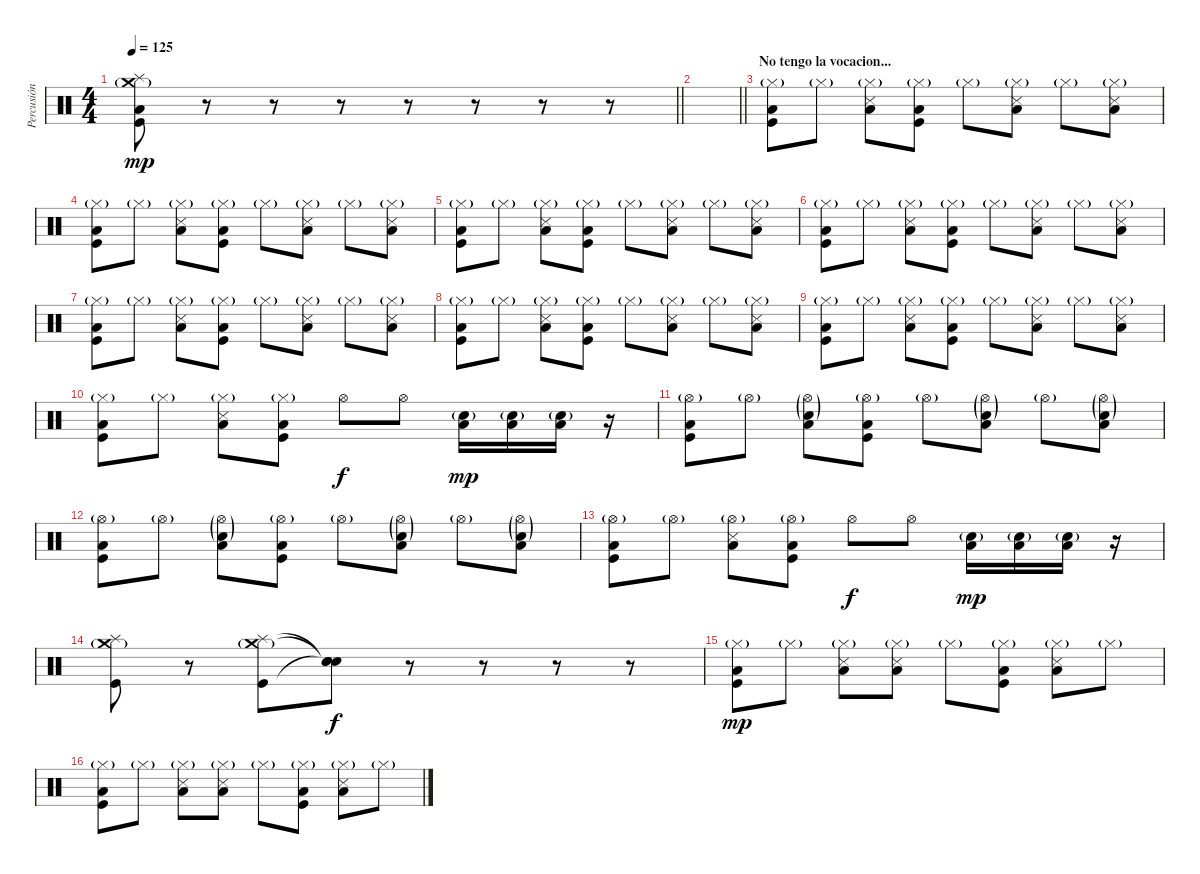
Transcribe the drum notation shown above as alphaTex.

\track ("Percusión" "Percusión") {instrument percussion}
\staff {score}
\articulation defaults
\ts (4 4)
\tempo 125
\clef neutral
\barLineRight lightlight
\ks c
("Splash (hit)" "Crash medium (hit)"{g} "Low Floor Tom (hit)" "Kick (hit)").8{dy mp} r.8 r.8 r.8 r.8 r.8 r.8 r.8 |
\barLineRight lightlight
|
\section ("" "No tengo la vocacion...")
("Hi-Hat (closed)"{g} "Low Floor Tom (hit)" "Kick (hit)").8 "Hi-Hat (closed)"{g}.8 ("Hi-Hat (closed)"{g} "Low Floor Tom (hit)" "Snare (side stick) 3").8 ("Hi-Hat (closed)"{g} "Low Floor Tom (hit)" "Kick (hit)").8 "Hi-Hat (closed)"{g}.8 ("Hi-Hat (closed)"{g} "Low Floor Tom (hit)" "Snare (side stick) 3").8 "Hi-Hat (closed)"{g}.8 ("Hi-Hat (closed)"{g} "Low Floor Tom (hit)" "Snare (side stick) 3").8 |
("Hi-Hat (closed)"{g} "Low Floor Tom (hit)" "Kick (hit)").8 "Hi-Hat (closed)"{g}.8 ("Hi-Hat (closed)"{g} "Low Floor Tom (hit)" "Snare (side stick) 3").8 ("Hi-Hat (closed)"{g} "Low Floor Tom (hit)" "Kick (hit)").8 "Hi-Hat (closed)"{g}.8 ("Hi-Hat (closed)"{g} "Low Floor Tom (hit)" "Snare (side stick) 3").8 "Hi-Hat (closed)"{g}.8 ("Hi-Hat (closed)"{g} "Low Floor Tom (hit)" "Snare (side stick) 3").8 |
("Hi-Hat (closed)"{g} "Low Floor Tom (hit)" "Kick (hit)").8 "Hi-Hat (closed)"{g}.8 ("Hi-Hat (closed)"{g} "Low Floor Tom (hit)" "Snare (side stick) 3").8 ("Hi-Hat (closed)"{g} "Low Floor Tom (hit)" "Kick (hit)").8 "Hi-Hat (closed)"{g}.8 ("Hi-Hat (closed)"{g} "Low Floor Tom (hit)" "Snare (side stick) 3").8 "Hi-Hat (closed)"{g}.8 ("Hi-Hat (closed)"{g} "Low Floor Tom (hit)" "Snare (side stick) 3").8 |
("Hi-Hat (closed)"{g} "Low Floor Tom (hit)" "Kick (hit)").8 "Hi-Hat (closed)"{g}.8 ("Hi-Hat (closed)"{g} "Low Floor Tom (hit)" "Snare (side stick) 3").8 ("Hi-Hat (closed)"{g} "Low Floor Tom (hit)" "Kick (hit)").8 "Hi-Hat (closed)"{g}.8 ("Hi-Hat (closed)"{g} "Low Floor Tom (hit)" "Snare (side stick) 3").8 "Hi-Hat (closed)"{g}.8 ("Hi-Hat (closed)"{g} "Low Floor Tom (hit)" "Snare (side stick) 3").8 |
("Hi-Hat (closed)"{g} "Low Floor Tom (hit)" "Kick (hit)").8 "Hi-Hat (closed)"{g}.8 ("Hi-Hat (closed)"{g} "Low Floor Tom (hit)" "Snare (side stick) 3").8 ("Hi-Hat (closed)"{g} "Low Floor Tom (hit)" "Kick (hit)").8 "Hi-Hat (closed)"{g}.8 ("Hi-Hat (closed)"{g} "Low Floor Tom (hit)" "Snare (side stick) 3").8 "Hi-Hat (closed)"{g}.8 ("Hi-Hat (closed)"{g} "Low Floor Tom (hit)" "Snare (side stick) 3").8 |
("Hi-Hat (closed)"{g} "Low Floor Tom (hit)" "Kick (hit)").8 "Hi-Hat (closed)"{g}.8 ("Hi-Hat (closed)"{g} "Low Floor Tom (hit)" "Snare (side stick) 3").8 ("Hi-Hat (closed)"{g} "Low Floor Tom (hit)" "Kick (hit)").8 "Hi-Hat (closed)"{g}.8 ("Hi-Hat (closed)"{g} "Low Floor Tom (hit)" "Snare (side stick) 3").8 "Hi-Hat (closed)"{g}.8 ("Hi-Hat (closed)"{g} "Low Floor Tom (hit)" "Snare (side stick) 3").8 |
("Hi-Hat (closed)"{g} "Low Floor Tom (hit)" "Kick (hit)").8 "Hi-Hat (closed)"{g}.8 ("Hi-Hat (closed)"{g} "Low Floor Tom (hit)" "Snare (side stick) 3").8 ("Hi-Hat (closed)"{g} "Low Floor Tom (hit)" "Kick (hit)").8 "Hi-Hat (closed)"{g}.8 ("Hi-Hat (closed)"{g} "Low Floor Tom (hit)" "Snare (side stick) 3").8 "Hi-Hat (closed)"{g}.8 ("Hi-Hat (closed)"{g} "Low Floor Tom (hit)" "Snare (side stick) 3").8 |
("Hi-Hat (closed)"{g} "Low Floor Tom (hit)" "Kick (hit)").8 "Hi-Hat (closed)"{g}.8 ("Hi-Hat (closed)"{g} "Low Floor Tom (hit)" "Snare (side stick) 3").8 ("Hi-Hat (closed)"{g} "Low Floor Tom (hit)" "Kick (hit)").8 "Hi-Hat (open)".8{dy f} "Hi-Hat (open)".8 ("Low Floor Tom (hit)" "Electric Snare (hit)"{g}).16{dy mp} ("Low Floor Tom (hit)" "Electric Snare (hit)"{g}).16 ("Low Floor Tom (hit)" "Electric Snare (hit)"{g}).16 r.16 |
("Hi-Hat (open)"{g} "Low Floor Tom (hit)" "Kick (hit)").8 "Hi-Hat (open)"{g}.8 ("Hi-Hat (open)"{g} "Low Floor Tom (hit)" "Electric Snare (hit)"{g}).8 ("Hi-Hat (open)"{g} "Low Floor Tom (hit)" "Kick (hit)").8 "Hi-Hat (open)"{g}.8 ("Hi-Hat (open)"{g} "Low Floor Tom (hit)" "Electric Snare (hit)"{g}).8 "Hi-Hat (open)"{g}.8 ("Hi-Hat (open)"{g} "Low Floor Tom (hit)" "Electric Snare (hit)"{g}).8 |
("Hi-Hat (open)"{g} "Low Floor Tom (hit)" "Kick (hit)").8 "Hi-Hat (open)"{g}.8 ("Hi-Hat (open)"{g} "Low Floor Tom (hit)" "Electric Snare (hit)"{g}).8 ("Hi-Hat (open)"{g} "Low Floor Tom (hit)" "Kick (hit)").8 "Hi-Hat (open)"{g}.8 ("Hi-Hat (open)"{g} "Low Floor Tom (hit)" "Electric Snare (hit)"{g}).8 "Hi-Hat (open)"{g}.8 ("Hi-Hat (open)"{g} "Low Floor Tom (hit)" "Electric Snare (hit)"{g}).8 |
("Hi-Hat (open)"{g} "Low Floor Tom (hit)" "Kick (hit)").8 "Hi-Hat (open)"{g}.8 ("Hi-Hat (open)"{g} "Low Floor Tom (hit)" "Snare (side stick) 3").8 ("Hi-Hat (open)"{g} "Low Floor Tom (hit)" "Kick (hit)").8 "Hi-Hat (open)".8{dy f} "Hi-Hat (open)".8 ("Low Floor Tom (hit)" "Electric Snare (hit)"{g}).16{dy mp} ("Low Floor Tom (hit)" "Electric Snare (hit)"{g}).16 ("Low Floor Tom (hit)" "Electric Snare (hit)"{g}).16 r.16 |
("Crash medium (hit)"{g} "Splash (hit)" "Kick (hit)").8 r.8 ("Crash medium (hit)"{g} "Splash (hit)" "Kick (hit)").8 ("Snare (hit)"{t} "Snare (hit)"{t} "Snare (hit)"{t}).8{dy f} r.8 r.8 r.8 r.8 |
("Hi-Hat (closed)"{g} "Low Floor Tom (hit)" "Kick (hit)").8{dy mp} "Hi-Hat (closed)"{g}.8 ("Hi-Hat (closed)"{g} "Low Floor Tom (hit)" "Snare (side stick) 3").8 ("Hi-Hat (closed)"{g} "Low Floor Tom (hit)" "Snare (side stick) 3").8 "Hi-Hat (closed)"{g}.8 ("Hi-Hat (closed)"{g} "Low Floor Tom (hit)" "Kick (hit)").8 ("Hi-Hat (closed)"{g} "Low Floor Tom (hit)" "Snare (side stick) 3").8 "Hi-Hat (closed)"{g}.8 |
("Hi-Hat (closed)"{g} "Low Floor Tom (hit)" "Kick (hit)").8 "Hi-Hat (closed)"{g}.8 ("Hi-Hat (closed)"{g} "Low Floor Tom (hit)" "Snare (side stick) 3").8 ("Hi-Hat (closed)"{g} "Low Floor Tom (hit)" "Snare (side stick) 3").8 "Hi-Hat (closed)"{g}.8 ("Hi-Hat (closed)"{g} "Low Floor Tom (hit)" "Kick (hit)").8 ("Hi-Hat (closed)"{g} "Low Floor Tom (hit)" "Snare (side stick) 3").8 "Hi-Hat (closed)"{g}.8
